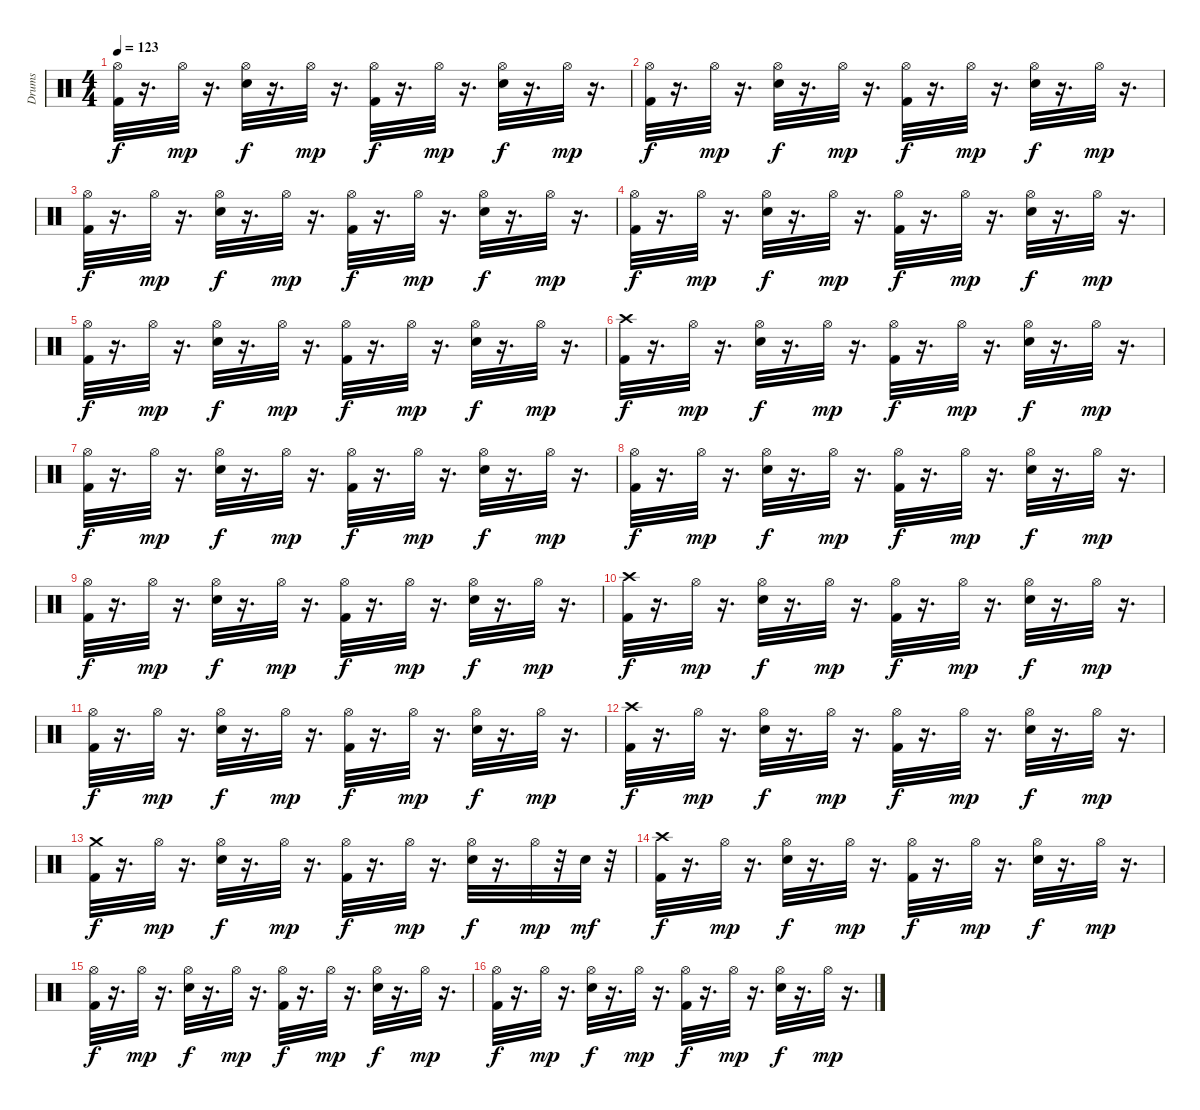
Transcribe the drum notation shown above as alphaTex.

\track ("Drums" "Drums") {instrument percussion}
\staff {score}
\articulation defaults
\ts (4 4)
\tempo 123
\clef neutral
\ks c
("Hi-Hat (open)" "Kick (hit) 2").32{dy f} r.16{d} "Hi-Hat (open)".32{dy mp} r.16{d} ("Hi-Hat (open)" "Electric Snare (hit)").32{dy f} r.16{d} "Hi-Hat (open)".32{dy mp} r.16{d} ("Hi-Hat (open)" "Kick (hit) 2").32{dy f} r.16{d} "Hi-Hat (open)".32{dy mp} r.16{d} ("Hi-Hat (open)" "Electric Snare (hit)").32{dy f} r.16{d} "Hi-Hat (open)".32{dy mp} r.16{d} |
("Hi-Hat (open)" "Kick (hit) 2").32{dy f} r.16{d} "Hi-Hat (open)".32{dy mp} r.16{d} ("Hi-Hat (open)" "Electric Snare (hit)").32{dy f} r.16{d} "Hi-Hat (open)".32{dy mp} r.16{d} ("Hi-Hat (open)" "Kick (hit) 2").32{dy f} r.16{d} "Hi-Hat (open)".32{dy mp} r.16{d} ("Hi-Hat (open)" "Electric Snare (hit)").32{dy f} r.16{d} "Hi-Hat (open)".32{dy mp} r.16{d} |
("Hi-Hat (open)" "Kick (hit) 2").32{dy f} r.16{d} "Hi-Hat (open)".32{dy mp} r.16{d} ("Hi-Hat (open)" "Electric Snare (hit)").32{dy f} r.16{d} "Hi-Hat (open)".32{dy mp} r.16{d} ("Hi-Hat (open)" "Kick (hit) 2").32{dy f} r.16{d} "Hi-Hat (open)".32{dy mp} r.16{d} ("Hi-Hat (open)" "Electric Snare (hit)").32{dy f} r.16{d} "Hi-Hat (open)".32{dy mp} r.16{d} |
("Hi-Hat (open)" "Kick (hit) 2").32{dy f} r.16{d} "Hi-Hat (open)".32{dy mp} r.16{d} ("Hi-Hat (open)" "Electric Snare (hit)").32{dy f} r.16{d} "Hi-Hat (open)".32{dy mp} r.16{d} ("Hi-Hat (open)" "Kick (hit) 2").32{dy f} r.16{d} "Hi-Hat (open)".32{dy mp} r.16{d} ("Hi-Hat (open)" "Electric Snare (hit)").32{dy f} r.16{d} "Hi-Hat (open)".32{dy mp} r.16{d} |
("Hi-Hat (open)" "Kick (hit) 2").32{dy f} r.16{d} "Hi-Hat (open)".32{dy mp} r.16{d} ("Hi-Hat (open)" "Electric Snare (hit)").32{dy f} r.16{d} "Hi-Hat (open)".32{dy mp} r.16{d} ("Hi-Hat (open)" "Kick (hit) 2").32{dy f} r.16{d} "Hi-Hat (open)".32{dy mp} r.16{d} ("Hi-Hat (open)" "Electric Snare (hit)").32{dy f} r.16{d} "Hi-Hat (open)".32{dy mp} r.16{d} |
("Crash high (hit)" "Kick (hit) 2").32{dy f} r.16{d} "Hi-Hat (open)".32{dy mp} r.16{d} ("Hi-Hat (open)" "Electric Snare (hit)").32{dy f} r.16{d} "Hi-Hat (open)".32{dy mp} r.16{d} ("Kick (hit) 2" "Hi-Hat (open)").32{dy f} r.16{d} "Hi-Hat (open)".32{dy mp} r.16{d} ("Hi-Hat (open)" "Electric Snare (hit)").32{dy f} r.16{d} "Hi-Hat (open)".32{dy mp} r.16{d} |
("Hi-Hat (open)" "Kick (hit) 2").32{dy f} r.16{d} "Hi-Hat (open)".32{dy mp} r.16{d} ("Hi-Hat (open)" "Electric Snare (hit)").32{dy f} r.16{d} "Hi-Hat (open)".32{dy mp} r.16{d} ("Hi-Hat (open)" "Kick (hit) 2").32{dy f} r.16{d} "Hi-Hat (open)".32{dy mp} r.16{d} ("Hi-Hat (open)" "Electric Snare (hit)").32{dy f} r.16{d} "Hi-Hat (open)".32{dy mp} r.16{d} |
("Hi-Hat (open)" "Kick (hit) 2").32{dy f} r.16{d} "Hi-Hat (open)".32{dy mp} r.16{d} ("Hi-Hat (open)" "Electric Snare (hit)").32{dy f} r.16{d} "Hi-Hat (open)".32{dy mp} r.16{d} ("Hi-Hat (open)" "Kick (hit) 2").32{dy f} r.16{d} "Hi-Hat (open)".32{dy mp} r.16{d} ("Hi-Hat (open)" "Electric Snare (hit)").32{dy f} r.16{d} "Hi-Hat (open)".32{dy mp} r.16{d} |
("Hi-Hat (open)" "Kick (hit) 2").32{dy f} r.16{d} "Hi-Hat (open)".32{dy mp} r.16{d} ("Hi-Hat (open)" "Electric Snare (hit)").32{dy f} r.16{d} "Hi-Hat (open)".32{dy mp} r.16{d} ("Hi-Hat (open)" "Kick (hit) 2").32{dy f} r.16{d} "Hi-Hat (open)".32{dy mp} r.16{d} ("Hi-Hat (open)" "Electric Snare (hit)").32{dy f} r.16{d} "Hi-Hat (open)".32{dy mp} r.16{d} |
("Crash high (hit)" "Kick (hit) 2").32{dy f} r.16{d} "Hi-Hat (open)".32{dy mp} r.16{d} ("Hi-Hat (open)" "Electric Snare (hit)").32{dy f} r.16{d} "Hi-Hat (open)".32{dy mp} r.16{d} ("Kick (hit) 2" "Hi-Hat (open)").32{dy f} r.16{d} "Hi-Hat (open)".32{dy mp} r.16{d} ("Hi-Hat (open)" "Electric Snare (hit)").32{dy f} r.16{d} "Hi-Hat (open)".32{dy mp} r.16{d} |
("Hi-Hat (open)" "Kick (hit) 2").32{dy f} r.16{d} "Hi-Hat (open)".32{dy mp} r.16{d} ("Hi-Hat (open)" "Electric Snare (hit)").32{dy f} r.16{d} "Hi-Hat (open)".32{dy mp} r.16{d} ("Hi-Hat (open)" "Kick (hit) 2").32{dy f} r.16{d} "Hi-Hat (open)".32{dy mp} r.16{d} ("Hi-Hat (open)" "Electric Snare (hit)").32{dy f} r.16{d} "Hi-Hat (open)".32{dy mp} r.16{d} |
("Crash high (hit)" "Kick (hit) 2").32{dy f} r.16{d} "Hi-Hat (open)".32{dy mp} r.16{d} ("Hi-Hat (open)" "Electric Snare (hit)").32{dy f} r.16{d} "Hi-Hat (open)".32{dy mp} r.16{d} ("Hi-Hat (open)" "Kick (hit) 2").32{dy f} r.16{d} "Hi-Hat (open)".32{dy mp} r.16{d} ("Hi-Hat (open)" "Electric Snare (hit)").32{dy f} r.16{d} "Hi-Hat (open)".32{dy mp} r.16{d} |
("Crash medium (hit)" "Kick (hit) 2").32{dy f} r.16{d} "Hi-Hat (open)".32{dy mp} r.16{d} ("Hi-Hat (open)" "Electric Snare (hit)").32{dy f} r.16{d} "Hi-Hat (open)".32{dy mp} r.16{d} ("Hi-Hat (open)" "Kick (hit) 2").32{dy f} r.16{d} "Hi-Hat (open)".32{dy mp} r.16{d} ("Hi-Hat (open)" "Electric Snare (hit)").32{dy f} r.16{d} "Hi-Hat (open)".32{dy mp} r.32 "Electric Snare (hit)".32{dy mf} r.32 |
("Crash high (hit)" "Kick (hit) 2").32{dy f} r.16{d} "Hi-Hat (open)".32{dy mp} r.16{d} ("Hi-Hat (open)" "Electric Snare (hit)").32{dy f} r.16{d} "Hi-Hat (open)".32{dy mp} r.16{d} ("Hi-Hat (open)" "Kick (hit) 2").32{dy f} r.16{d} "Hi-Hat (open)".32{dy mp} r.16{d} ("Hi-Hat (open)" "Electric Snare (hit)").32{dy f} r.16{d} "Hi-Hat (open)".32{dy mp} r.16{d} |
("Hi-Hat (open)" "Kick (hit) 2").32{dy f} r.16{d} "Hi-Hat (open)".32{dy mp} r.16{d} ("Hi-Hat (open)" "Electric Snare (hit)").32{dy f} r.16{d} "Hi-Hat (open)".32{dy mp} r.16{d} ("Hi-Hat (open)" "Kick (hit) 2").32{dy f} r.16{d} "Hi-Hat (open)".32{dy mp} r.16{d} ("Hi-Hat (open)" "Electric Snare (hit)").32{dy f} r.16{d} "Hi-Hat (open)".32{dy mp} r.16{d} |
("Hi-Hat (open)" "Kick (hit) 2").32{dy f} r.16{d} "Hi-Hat (open)".32{dy mp} r.16{d} ("Hi-Hat (open)" "Electric Snare (hit)").32{dy f} r.16{d} "Hi-Hat (open)".32{dy mp} r.16{d} ("Hi-Hat (open)" "Kick (hit) 2").32{dy f} r.16{d} "Hi-Hat (open)".32{dy mp} r.16{d} ("Hi-Hat (open)" "Electric Snare (hit)").32{dy f} r.16{d} "Hi-Hat (open)".32{dy mp} r.16{d}
